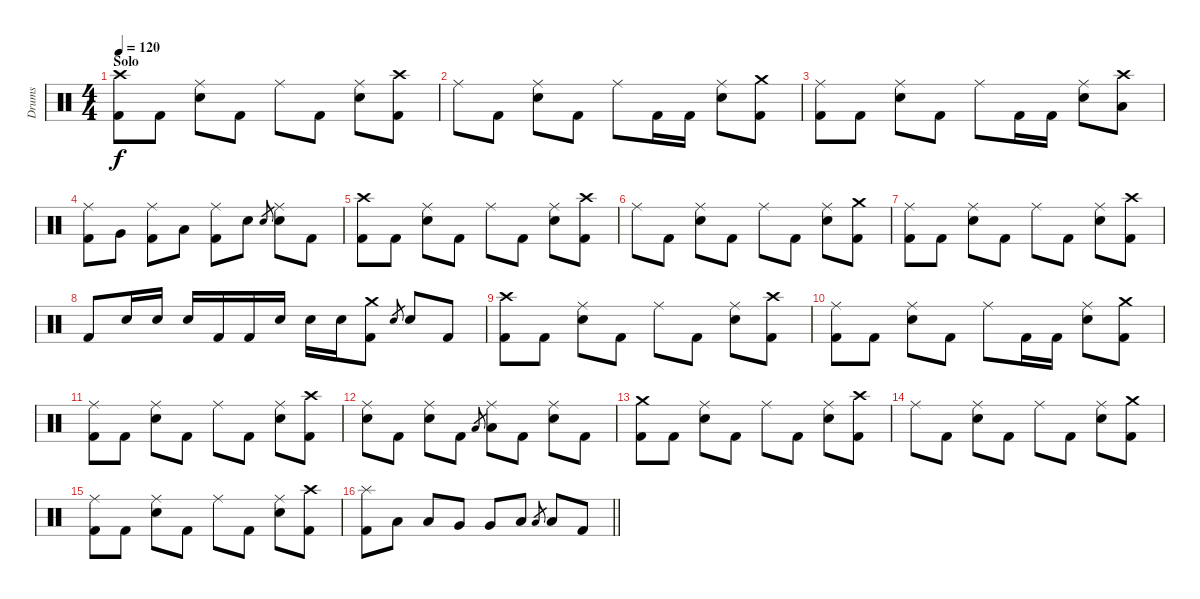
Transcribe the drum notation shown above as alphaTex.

\track ("Drums" "Drums") {instrument percussion}
\staff {score}
\articulation defaults
\ts (4 4)
\section ("" "Solo")
\tempo 120
\clef neutral
\ks c
("Crash high (hit)" "Kick (hit) 2").8{dy f} "Kick (hit) 2".8 ("Ride (middle)" "Snare (hit) 2").8 "Kick (hit) 2".8 "Ride (middle)".8 "Kick (hit) 2".8 ("Ride (middle)" "Snare (hit) 2").8 ("Crash high (hit)" "Kick (hit) 2").8 |
"Ride (middle)".8 "Kick (hit) 2".8 ("Ride (middle)" "Snare (hit) 2").8 "Kick (hit) 2".8 "Ride (middle)".8 "Kick (hit) 2".16 "Kick (hit) 2".16 ("Ride (middle)" "Snare (hit) 2").8 ("Crash medium (hit)" "Kick (hit) 2").8 |
("Ride (middle)" "Kick (hit) 2").8 "Kick (hit) 2".8 ("Ride (middle)" "Snare (hit) 2").8 "Kick (hit) 2".8 "Ride (middle)".8 "Kick (hit) 2".16 "Kick (hit) 2".16 ("Ride (middle)" "Snare (hit) 2").8 ("Crash high (hit)" "Low Tom (hit)").8 |
("Ride (middle)" "Kick (hit) 2").8 "Very Low Tom (hit)".8 ("Ride (middle)" "Kick (hit) 2").8 "Low Floor Tom (hit)".8 ("Ride (middle)" "Kick (hit) 2").8 "Snare (hit) 2".8 "Snare (hit) 2".8{gr} ("Ride (middle)" "Snare (hit) 2").8 "Kick (hit) 2".8 |
("Crash high (hit)" "Kick (hit) 2").8 "Kick (hit) 2".8 ("Ride (middle)" "Snare (hit) 2").8 "Kick (hit) 2".8 "Ride (middle)".8 "Kick (hit) 2".8 ("Ride (middle)" "Snare (hit) 2").8 ("Crash high (hit)" "Kick (hit) 2").8 |
"Ride (middle)".8 "Kick (hit) 2".8 ("Ride (middle)" "Snare (hit) 2").8 "Kick (hit) 2".8 "Ride (middle)".8 "Kick (hit) 2".8 ("Ride (middle)" "Snare (hit) 2").8 ("Crash medium (hit)" "Kick (hit) 2").8 |
("Ride (middle)" "Kick (hit) 2").8 "Kick (hit) 2".8 ("Ride (middle)" "Snare (hit) 2").8 "Kick (hit) 2".8 "Ride (middle)".8 "Kick (hit) 2".8 ("Ride (middle)" "Snare (hit) 2").8 ("Crash high (hit)" "Kick (hit) 2").8 |
"Kick (hit) 2".8 "Snare (hit) 2".16 "Snare (hit) 2".16 "Snare (hit) 2".16 "Kick (hit) 2".16 "Kick (hit) 2".16 "Snare (hit) 2".16 "Snare (hit) 2".16 "Snare (hit) 2".16 ("Crash medium (hit)" "Kick (hit) 2").8 "Snare (hit) 2".8{gr} "Snare (hit) 2".8 "Kick (hit) 2".8 |
("Crash high (hit)" "Kick (hit) 2").8 "Kick (hit) 2".8 ("Ride (middle)" "Snare (hit) 2").8 "Kick (hit) 2".8 "Ride (middle)".8 "Kick (hit) 2".8 ("Ride (middle)" "Snare (hit) 2").8 ("Crash high (hit)" "Kick (hit) 2").8 |
("Ride (middle)" "Kick (hit) 2").8 "Kick (hit) 2".8 ("Ride (middle)" "Snare (hit) 2").8 "Kick (hit) 2".8 "Ride (middle)".8 "Kick (hit) 2".16 "Kick (hit) 2".16 ("Ride (middle)" "Snare (hit) 2").8 ("Crash medium (hit)" "Kick (hit) 2").8 |
("Ride (middle)" "Kick (hit) 2").8 "Kick (hit) 2".8 ("Ride (middle)" "Snare (hit) 2").8 "Kick (hit) 2".8 "Ride (middle)".8 "Kick (hit) 2".8 ("Ride (middle)" "Snare (hit) 2").8 ("Crash high (hit)" "Kick (hit) 2").8 |
("Ride (middle)" "Snare (hit) 2").8 "Kick (hit) 2".8 ("Ride (middle)" "Snare (hit) 2").8 "Kick (hit) 2".8 "Low Tom (hit)".8{gr} ("Ride (middle)" "Low Tom (hit)").8 "Kick (hit) 2".8 ("Ride (middle)" "Snare (hit) 2").8 "Kick (hit) 2".8 |
("Crash medium (hit)" "Kick (hit) 2").8 "Kick (hit) 2".8 ("Ride (middle)" "Snare (hit) 2").8 "Kick (hit) 2".8 "Ride (middle)".8 "Kick (hit) 2".8 ("Ride (middle)" "Snare (hit) 2").8 ("Crash high (hit)" "Kick (hit) 2").8 |
"Ride (middle)".8 "Kick (hit) 2".8 ("Ride (middle)" "Snare (hit) 2").8 "Kick (hit) 2".8 "Ride (middle)".8 "Kick (hit) 2".8 ("Ride (middle)" "Snare (hit) 2").8 ("Crash medium (hit)" "Kick (hit) 2").8 |
("Ride (middle)" "Kick (hit) 2").8 "Kick (hit) 2".8 ("Ride (middle)" "Snare (hit) 2").8 "Kick (hit) 2".8 "Ride (middle)".8 "Kick (hit) 2".8 ("Ride (middle)" "Snare (hit) 2").8 ("Crash high (hit)" "Kick (hit) 2").8 |
\barLineRight lightlight
("Splash (hit)" "Kick (hit) 2").8 "Low Tom (hit)".8 "Low Tom (hit)".8 "Very Low Tom (hit)".8 "Very Low Tom (hit)".8 "Low Floor Tom (hit)".8 "Low Floor Tom (hit)".8{gr} "Low Floor Tom (hit)".8 "Kick (hit) 2".8
